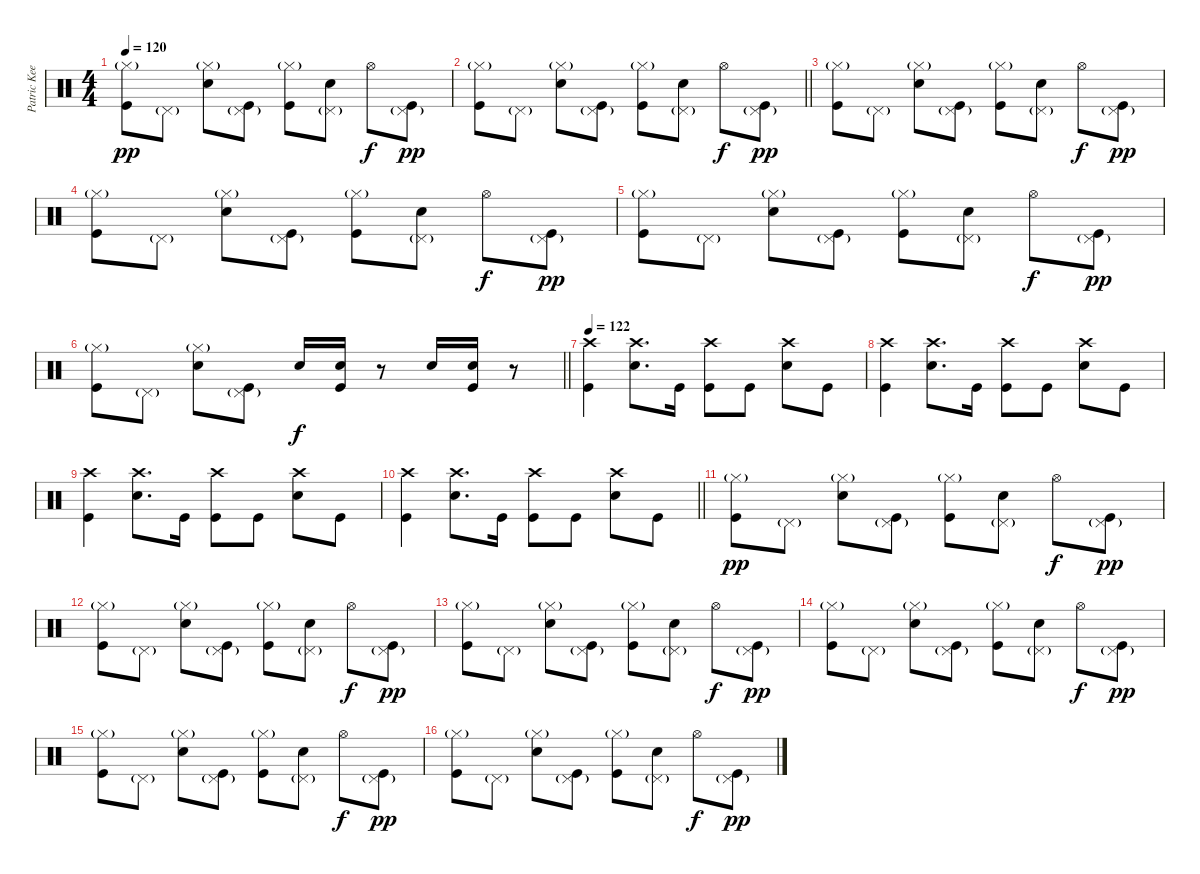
\track ("Patric Keeler (Drums)" "Patric Kee") {instrument percussion}
\staff {score}
\articulation defaults
\ts (4 4)
\tempo 120
\clef neutral
\ks c
("Hi-Hat (closed)"{g} "Kick (hit)").8{dy pp} "Pedal Hi-Hat (hit)"{g}.8 ("Hi-Hat (closed)"{g} "Snare (hit) 2").8 ("Pedal Hi-Hat (hit)"{g} "Kick (hit)").8 ("Hi-Hat (closed)"{g} "Kick (hit)").8 ("Pedal Hi-Hat (hit)"{g} "Snare (hit) 2").8 "Hi-Hat (open)".8{dy f} ("Pedal Hi-Hat (hit)"{g} "Kick (hit)").8{dy pp} |
\barLineRight lightlight
("Hi-Hat (closed)"{g} "Kick (hit)").8 "Pedal Hi-Hat (hit)"{g}.8 ("Hi-Hat (closed)"{g} "Snare (hit) 2").8 ("Pedal Hi-Hat (hit)"{g} "Kick (hit)").8 ("Hi-Hat (closed)"{g} "Kick (hit)").8 ("Pedal Hi-Hat (hit)"{g} "Snare (hit) 2").8 "Hi-Hat (open)".8{dy f} ("Pedal Hi-Hat (hit)"{g} "Kick (hit)").8{dy pp} |
("Hi-Hat (closed)"{g} "Kick (hit)").8 "Pedal Hi-Hat (hit)"{g}.8 ("Hi-Hat (closed)"{g} "Snare (hit) 2").8 ("Pedal Hi-Hat (hit)"{g} "Kick (hit)").8 ("Hi-Hat (closed)"{g} "Kick (hit)").8 ("Pedal Hi-Hat (hit)"{g} "Snare (hit) 2").8 "Hi-Hat (open)".8{dy f} ("Pedal Hi-Hat (hit)"{g} "Kick (hit)").8{dy pp} |
("Hi-Hat (closed)"{g} "Kick (hit)").8 "Pedal Hi-Hat (hit)"{g}.8 ("Hi-Hat (closed)"{g} "Snare (hit) 2").8 ("Pedal Hi-Hat (hit)"{g} "Kick (hit)").8 ("Hi-Hat (closed)"{g} "Kick (hit)").8 ("Pedal Hi-Hat (hit)"{g} "Snare (hit) 2").8 "Hi-Hat (open)".8{dy f} ("Pedal Hi-Hat (hit)"{g} "Kick (hit)").8{dy pp} |
("Hi-Hat (closed)"{g} "Kick (hit)").8 "Pedal Hi-Hat (hit)"{g}.8 ("Hi-Hat (closed)"{g} "Snare (hit) 2").8 ("Pedal Hi-Hat (hit)"{g} "Kick (hit)").8 ("Hi-Hat (closed)"{g} "Kick (hit)").8 ("Pedal Hi-Hat (hit)"{g} "Snare (hit) 2").8 "Hi-Hat (open)".8{dy f} ("Pedal Hi-Hat (hit)"{g} "Kick (hit)").8{dy pp} |
\barLineRight lightlight
("Hi-Hat (closed)"{g} "Kick (hit)").8 "Pedal Hi-Hat (hit)"{g}.8 ("Hi-Hat (closed)"{g} "Snare (hit) 2").8 ("Pedal Hi-Hat (hit)"{g} "Kick (hit)").8 "Snare (hit) 2".16{dy f} ("Snare (hit) 2" "Kick (hit)").16 r.8 "Snare (hit) 2".16 ("Snare (hit) 2" "Kick (hit)").16 r.8 |
\tempo 122
("Crash high (hit)" "Kick (hit)").4 ("Crash high (hit)" "Snare (hit) 2").8{d} "Kick (hit)".16 ("Crash high (hit)" "Kick (hit)").8 "Kick (hit)".8 ("Crash high (hit)" "Snare (hit) 2").8 "Kick (hit)".8 |
("Crash high (hit)" "Kick (hit)").4 ("Crash high (hit)" "Snare (hit) 2").8{d} "Kick (hit)".16 ("Crash high (hit)" "Kick (hit)").8 "Kick (hit)".8 ("Crash high (hit)" "Snare (hit) 2").8 "Kick (hit)".8 |
("Crash high (hit)" "Kick (hit)").4 ("Crash high (hit)" "Snare (hit) 2").8{d} "Kick (hit)".16 ("Crash high (hit)" "Kick (hit)").8 "Kick (hit)".8 ("Crash high (hit)" "Snare (hit) 2").8 "Kick (hit)".8 |
\barLineRight lightlight
("Crash high (hit)" "Kick (hit)").4 ("Crash high (hit)" "Snare (hit) 2").8{d} "Kick (hit)".16 ("Crash high (hit)" "Kick (hit)").8 "Kick (hit)".8 ("Crash high (hit)" "Snare (hit) 2").8 "Kick (hit)".8 |
("Hi-Hat (closed)"{g} "Kick (hit)").8{dy pp} "Pedal Hi-Hat (hit)"{g}.8 ("Hi-Hat (closed)"{g} "Snare (hit) 2").8 ("Pedal Hi-Hat (hit)"{g} "Kick (hit)").8 ("Hi-Hat (closed)"{g} "Kick (hit)").8 ("Pedal Hi-Hat (hit)"{g} "Snare (hit) 2").8 "Hi-Hat (open)".8{dy f} ("Pedal Hi-Hat (hit)"{g} "Kick (hit)").8{dy pp} |
("Hi-Hat (closed)"{g} "Kick (hit)").8 "Pedal Hi-Hat (hit)"{g}.8 ("Hi-Hat (closed)"{g} "Snare (hit) 2").8 ("Pedal Hi-Hat (hit)"{g} "Kick (hit)").8 ("Hi-Hat (closed)"{g} "Kick (hit)").8 ("Pedal Hi-Hat (hit)"{g} "Snare (hit) 2").8 "Hi-Hat (open)".8{dy f} ("Pedal Hi-Hat (hit)"{g} "Kick (hit)").8{dy pp} |
("Hi-Hat (closed)"{g} "Kick (hit)").8 "Pedal Hi-Hat (hit)"{g}.8 ("Hi-Hat (closed)"{g} "Snare (hit) 2").8 ("Pedal Hi-Hat (hit)"{g} "Kick (hit)").8 ("Hi-Hat (closed)"{g} "Kick (hit)").8 ("Pedal Hi-Hat (hit)"{g} "Snare (hit) 2").8 "Hi-Hat (open)".8{dy f} ("Pedal Hi-Hat (hit)"{g} "Kick (hit)").8{dy pp} |
("Hi-Hat (closed)"{g} "Kick (hit)").8 "Pedal Hi-Hat (hit)"{g}.8 ("Hi-Hat (closed)"{g} "Snare (hit) 2").8 ("Pedal Hi-Hat (hit)"{g} "Kick (hit)").8 ("Hi-Hat (closed)"{g} "Kick (hit)").8 ("Pedal Hi-Hat (hit)"{g} "Snare (hit) 2").8 "Hi-Hat (open)".8{dy f} ("Pedal Hi-Hat (hit)"{g} "Kick (hit)").8{dy pp} |
("Hi-Hat (closed)"{g} "Kick (hit)").8 "Pedal Hi-Hat (hit)"{g}.8 ("Hi-Hat (closed)"{g} "Snare (hit) 2").8 ("Pedal Hi-Hat (hit)"{g} "Kick (hit)").8 ("Hi-Hat (closed)"{g} "Kick (hit)").8 ("Pedal Hi-Hat (hit)"{g} "Snare (hit) 2").8 "Hi-Hat (open)".8{dy f} ("Pedal Hi-Hat (hit)"{g} "Kick (hit)").8{dy pp} |
("Hi-Hat (closed)"{g} "Kick (hit)").8 "Pedal Hi-Hat (hit)"{g}.8 ("Hi-Hat (closed)"{g} "Snare (hit) 2").8 ("Pedal Hi-Hat (hit)"{g} "Kick (hit)").8 ("Hi-Hat (closed)"{g} "Kick (hit)").8 ("Pedal Hi-Hat (hit)"{g} "Snare (hit) 2").8 "Hi-Hat (open)".8{dy f} ("Pedal Hi-Hat (hit)"{g} "Kick (hit)").8{dy pp}
